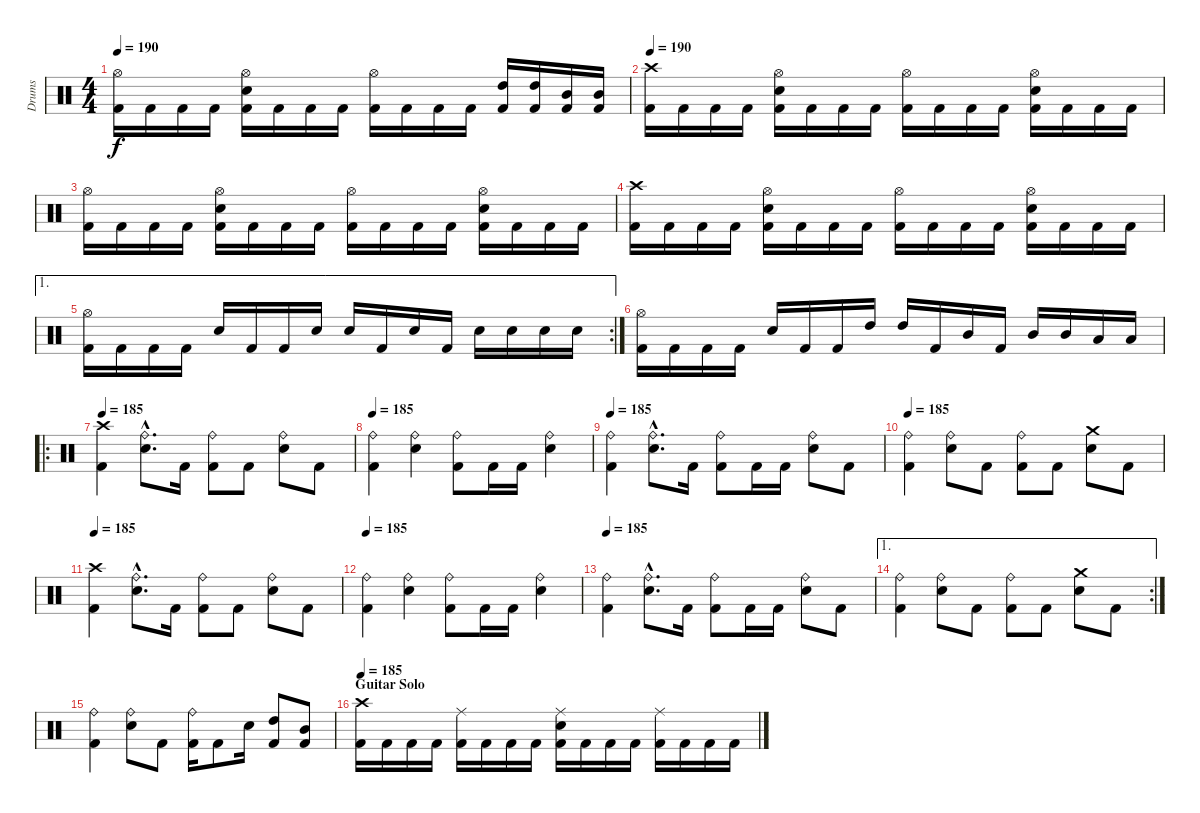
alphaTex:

\track ("Drums" "Drums") {instrument percussion}
\staff {score}
\articulation defaults
\ts (4 4)
\tempo 190
\clef neutral
\ks c
("Hi-Hat (open)" "Kick (hit) 2").16{dy f} "Kick (hit) 2".16 "Kick (hit) 2".16 "Kick (hit) 2".16 ("Hi-Hat (open)" "Electric Snare (hit)" "Kick (hit) 2").16 "Kick (hit) 2".16 "Kick (hit) 2".16 "Kick (hit) 2".16 ("Hi-Hat (open)" "Kick (hit) 2").16 "Kick (hit) 2".16 "Kick (hit) 2".16 "Kick (hit) 2".16 ("High Tom (hit)" "Kick (hit) 2").16 ("High Tom (hit)" "Kick (hit) 2").16 ("Mid Tom (hit)" "Kick (hit) 2").16 ("Mid Tom (hit)" "Kick (hit) 2").16 |
\tempo 190
("Crash high (hit)" "Kick (hit) 2").16 "Kick (hit) 2".16 "Kick (hit) 2".16 "Kick (hit) 2".16 ("Hi-Hat (open)" "Electric Snare (hit)" "Kick (hit) 2").16 "Kick (hit) 2".16 "Kick (hit) 2".16 "Kick (hit) 2".16 ("Hi-Hat (open)" "Kick (hit) 2").16 "Kick (hit) 2".16 "Kick (hit) 2".16 "Kick (hit) 2".16 ("Hi-Hat (open)" "Electric Snare (hit)" "Kick (hit) 2").16 "Kick (hit) 2".16 "Kick (hit) 2".16 "Kick (hit) 2".16 |
("Hi-Hat (open)" "Kick (hit) 2").16 "Kick (hit) 2".16 "Kick (hit) 2".16 "Kick (hit) 2".16 ("Hi-Hat (open)" "Electric Snare (hit)" "Kick (hit) 2").16 "Kick (hit) 2".16 "Kick (hit) 2".16 "Kick (hit) 2".16 ("Hi-Hat (open)" "Kick (hit) 2").16 "Kick (hit) 2".16 "Kick (hit) 2".16 "Kick (hit) 2".16 ("Hi-Hat (open)" "Electric Snare (hit)" "Kick (hit) 2").16 "Kick (hit) 2".16 "Kick (hit) 2".16 "Kick (hit) 2".16 |
("Crash high (hit)" "Kick (hit) 2").16 "Kick (hit) 2".16 "Kick (hit) 2".16 "Kick (hit) 2".16 ("Hi-Hat (open)" "Electric Snare (hit)" "Kick (hit) 2").16 "Kick (hit) 2".16 "Kick (hit) 2".16 "Kick (hit) 2".16 ("Hi-Hat (open)" "Kick (hit) 2").16 "Kick (hit) 2".16 "Kick (hit) 2".16 "Kick (hit) 2".16 ("Hi-Hat (open)" "Electric Snare (hit)" "Kick (hit) 2").16 "Kick (hit) 2".16 "Kick (hit) 2".16 "Kick (hit) 2".16 |
\ae 1
\rc 2
("Hi-Hat (open)" "Kick (hit) 2").16 "Kick (hit) 2".16 "Kick (hit) 2".16 "Kick (hit) 2".16 "Electric Snare (hit)".16 "Kick (hit) 2".16 "Kick (hit) 2".16 "Electric Snare (hit)".16 "Electric Snare (hit)".16 "Kick (hit) 2".16 "Electric Snare (hit)".16 "Kick (hit) 2".16 "Electric Snare (hit)".16 "Electric Snare (hit)".16 "Electric Snare (hit)".16 "Electric Snare (hit)".16 |
("Hi-Hat (open)" "Kick (hit) 2").16 "Kick (hit) 2".16 "Kick (hit) 2".16 "Kick (hit) 2".16 "Electric Snare (hit)".16 "Kick (hit) 2".16 "Kick (hit) 2".16 "High Tom (hit)".16 "High Tom (hit)".16 "Kick (hit) 2".16 "Mid Tom (hit)".16 "Kick (hit) 2".16 "Mid Tom (hit)".16 "Mid Tom (hit)".16 "Low Tom (hit)".16 "Low Tom (hit)".16 |
\ro
\tempo 185
("Crash high (hit)" "Kick (hit) 2").4 ("Ride (bell)"{hac} "Electric Snare (hit)"{hac}).8{d} "Kick (hit) 2".16 ("Ride (bell)" "Kick (hit) 2").8 "Kick (hit) 2".8 ("Ride (bell)" "Electric Snare (hit)").8 "Kick (hit) 2".8 |
\tempo 185
("Ride (bell)" "Kick (hit) 2").4 ("Ride (bell)" "Electric Snare (hit)").4 ("Ride (bell)" "Kick (hit) 2").8 "Kick (hit) 2".16 "Kick (hit) 2".16 ("Ride (bell)" "Electric Snare (hit)").4 |
\tempo 185
("Ride (bell)" "Kick (hit) 2").4 ("Ride (bell)"{hac} "Electric Snare (hit)"{hac}).8{d} "Kick (hit) 2".16 ("Ride (bell)" "Kick (hit) 2").8 "Kick (hit) 2".16 "Kick (hit) 2".16 ("Ride (bell)" "Electric Snare (hit)").8 "Kick (hit) 2".8 |
\tempo 185
("Ride (bell)" "Kick (hit) 2").4 ("Ride (bell)" "Electric Snare (hit)").8 "Kick (hit) 2".8 ("Ride (bell)" "Kick (hit) 2").8 "Kick (hit) 2".8 ("Crash medium (hit)" "Electric Snare (hit)").8 "Kick (hit) 2".8 |
\tempo 185
("Crash high (hit)" "Kick (hit) 2").4 ("Ride (bell)"{hac} "Electric Snare (hit)"{hac}).8{d} "Kick (hit) 2".16 ("Ride (bell)" "Kick (hit) 2").8 "Kick (hit) 2".8 ("Ride (bell)" "Electric Snare (hit)").8 "Kick (hit) 2".8 |
\tempo 185
("Ride (bell)" "Kick (hit) 2").4 ("Ride (bell)" "Electric Snare (hit)").4 ("Ride (bell)" "Kick (hit) 2").8 "Kick (hit) 2".16 "Kick (hit) 2".16 ("Ride (bell)" "Electric Snare (hit)").4 |
\tempo 185
("Ride (bell)" "Kick (hit) 2").4 ("Ride (bell)"{hac} "Electric Snare (hit)"{hac}).8{d} "Kick (hit) 2".16 ("Ride (bell)" "Kick (hit) 2").8 "Kick (hit) 2".16 "Kick (hit) 2".16 ("Ride (bell)" "Electric Snare (hit)").8 "Kick (hit) 2".8 |
\ae 1
\rc 2
("Ride (bell)" "Kick (hit) 2").4 ("Ride (bell)" "Electric Snare (hit)").8 "Kick (hit) 2".8 ("Ride (bell)" "Kick (hit) 2").8 "Kick (hit) 2".8 ("Crash medium (hit)" "Electric Snare (hit)").8 "Kick (hit) 2".8 |
("Ride (bell)" "Kick (hit) 2").4 ("Ride (bell)" "Electric Snare (hit)").8 "Kick (hit) 2".8 ("Ride (bell)" "Kick (hit) 2").16 "Kick (hit) 2".8 "Electric Snare (hit)".16 ("High Tom (hit)" "Kick (hit) 2").8 ("Mid Tom (hit)" "Kick (hit) 2").8 |
\section ("" "Guitar Solo")
\tempo 185
("Crash high (hit)" "Kick (hit) 2").16{volume 14} "Kick (hit) 2".16 "Kick (hit) 2".16 "Kick (hit) 2".16 ("Ride (middle)" "Kick (hit) 2").16 "Kick (hit) 2".16 "Kick (hit) 2".16 "Kick (hit) 2".16 ("Ride (middle)" "Electric Snare (hit)" "Kick (hit) 2").16 "Kick (hit) 2".16 "Kick (hit) 2".16 "Kick (hit) 2".16 ("Ride (middle)" "Kick (hit) 2").16 "Kick (hit) 2".16 "Kick (hit) 2".16 "Kick (hit) 2".16
